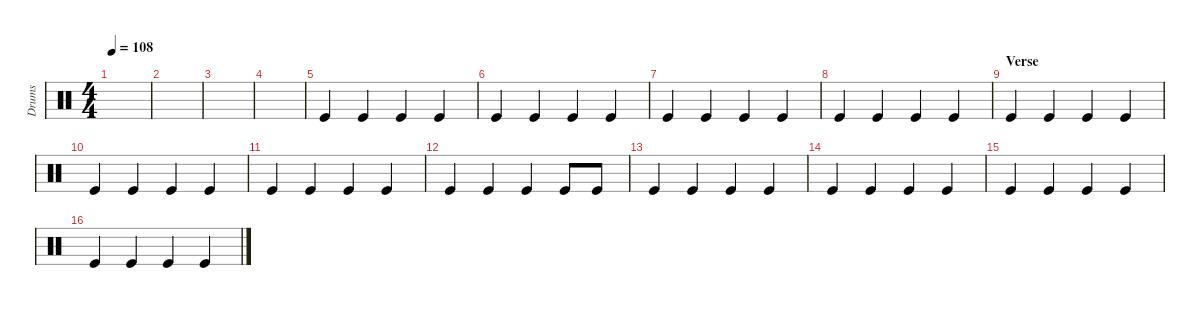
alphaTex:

\defaultSystemsLayout 4
\hideDynamics
\bracketExtendMode groupsimilarinstruments
\otherSystemsTrackNameOrientation horizontal
\chordDiagramsInScore
\track ("Drumkit" "Drums") {instrument percussion}
\staff {score}
\articulation defaults
\ts (4 4)
\tempo 108
\clef neutral
\ks c
|
|
|
|
"Kick (hit)".4 "Kick (hit)".4 "Kick (hit)".4 "Kick (hit)".4 |
"Kick (hit)".4 "Kick (hit)".4 "Kick (hit)".4 "Kick (hit)".4 |
"Kick (hit)".4 "Kick (hit)".4 "Kick (hit)".4 "Kick (hit)".4 |
"Kick (hit)".4 "Kick (hit)".4 "Kick (hit)".4 "Kick (hit)".4 |
\section ("" "Verse")
"Kick (hit)".4 "Kick (hit)".4 "Kick (hit)".4 "Kick (hit)".4 |
"Kick (hit)".4 "Kick (hit)".4 "Kick (hit)".4 "Kick (hit)".4 |
"Kick (hit)".4 "Kick (hit)".4 "Kick (hit)".4 "Kick (hit)".4 |
"Kick (hit)".4 "Kick (hit)".4 "Kick (hit)".4 "Kick (hit)".8 "Kick (hit)".8 |
"Kick (hit)".4 "Kick (hit)".4 "Kick (hit)".4 "Kick (hit)".4 |
"Kick (hit)".4 "Kick (hit)".4 "Kick (hit)".4 "Kick (hit)".4 |
"Kick (hit)".4 "Kick (hit)".4 "Kick (hit)".4 "Kick (hit)".4 |
"Kick (hit)".4 "Kick (hit)".4 "Kick (hit)".4 "Kick (hit)".4
